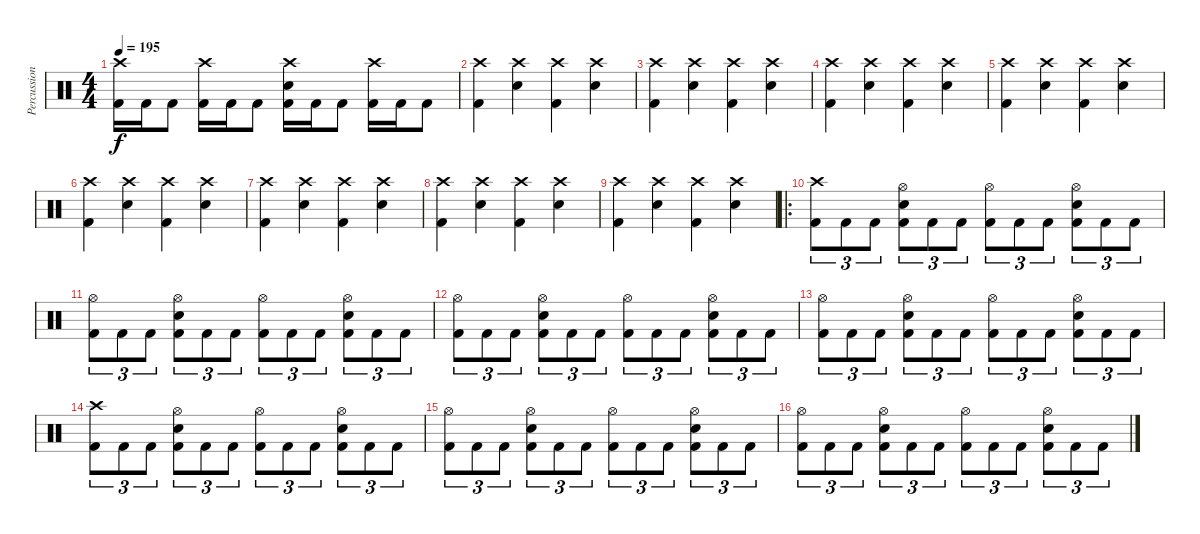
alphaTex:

\track ("Percussion" "Percussion") {instrument percussion}
\staff {score}
\articulation defaults
\ts (4 4)
\tempo 195
\clef neutral
\ks c
("Crash high (hit)" "Kick (hit) 2").16{dy f} "Kick (hit) 2".16 "Kick (hit) 2".8 ("Crash high (hit)" "Kick (hit) 2").16 "Kick (hit) 2".16 "Kick (hit) 2".8 ("Crash high (hit)" "Electric Snare (hit)" "Kick (hit) 2").16 "Kick (hit) 2".16 "Kick (hit) 2".8 ("Crash high (hit)" "Kick (hit) 2").16 "Kick (hit) 2".16 "Kick (hit) 2".8 |
("Crash high (hit)" "Kick (hit) 2").4 ("Crash high (hit)" "Electric Snare (hit)").4 ("Crash high (hit)" "Kick (hit) 2").4 ("Crash high (hit)" "Electric Snare (hit)").4 |
("Crash high (hit)" "Kick (hit) 2").4 ("Crash high (hit)" "Electric Snare (hit)").4 ("Crash high (hit)" "Kick (hit) 2").4 ("Crash high (hit)" "Electric Snare (hit)").4 |
("Crash high (hit)" "Kick (hit) 2").4 ("Crash high (hit)" "Electric Snare (hit)").4 ("Crash high (hit)" "Kick (hit) 2").4 ("Crash high (hit)" "Electric Snare (hit)").4 |
("Crash high (hit)" "Kick (hit) 2").4 ("Crash high (hit)" "Electric Snare (hit)").4 ("Crash high (hit)" "Kick (hit) 2").4 ("Crash high (hit)" "Electric Snare (hit)").4 |
("Crash high (hit)" "Kick (hit) 2").4 ("Crash high (hit)" "Electric Snare (hit)").4 ("Crash high (hit)" "Kick (hit) 2").4 ("Crash high (hit)" "Electric Snare (hit)").4 |
("Crash high (hit)" "Kick (hit) 2").4 ("Crash high (hit)" "Electric Snare (hit)").4 ("Crash high (hit)" "Kick (hit) 2").4 ("Crash high (hit)" "Electric Snare (hit)").4 |
("Crash high (hit)" "Kick (hit) 2").4 ("Crash high (hit)" "Electric Snare (hit)").4 ("Crash high (hit)" "Kick (hit) 2").4 ("Crash high (hit)" "Electric Snare (hit)").4 |
("Crash high (hit)" "Kick (hit) 2").4 ("Crash high (hit)" "Electric Snare (hit)").4 ("Crash high (hit)" "Kick (hit) 2").4 ("Crash high (hit)" "Electric Snare (hit)").4 |
\ro
("Crash high (hit)" "Kick (hit) 2").8{tu (3 2)} "Kick (hit) 2".8{tu (3 2)} "Kick (hit) 2".8{tu (3 2)} ("Hi-Hat (open)" "Electric Snare (hit)" "Kick (hit) 2").8{tu (3 2)} "Kick (hit) 2".8{tu (3 2)} "Kick (hit) 2".8{tu (3 2)} ("Hi-Hat (open)" "Kick (hit) 2").8{tu (3 2)} "Kick (hit) 2".8{tu (3 2)} "Kick (hit) 2".8{tu (3 2)} ("Hi-Hat (open)" "Electric Snare (hit)" "Kick (hit) 2").8{tu (3 2)} "Kick (hit) 2".8{tu (3 2)} "Kick (hit) 2".8{tu (3 2)} |
("Hi-Hat (open)" "Kick (hit) 2").8{tu (3 2)} "Kick (hit) 2".8{tu (3 2)} "Kick (hit) 2".8{tu (3 2)} ("Hi-Hat (open)" "Electric Snare (hit)" "Kick (hit) 2").8{tu (3 2)} "Kick (hit) 2".8{tu (3 2)} "Kick (hit) 2".8{tu (3 2)} ("Hi-Hat (open)" "Kick (hit) 2").8{tu (3 2)} "Kick (hit) 2".8{tu (3 2)} "Kick (hit) 2".8{tu (3 2)} ("Hi-Hat (open)" "Electric Snare (hit)" "Kick (hit) 2").8{tu (3 2)} "Kick (hit) 2".8{tu (3 2)} "Kick (hit) 2".8{tu (3 2)} |
("Hi-Hat (open)" "Kick (hit) 2").8{tu (3 2)} "Kick (hit) 2".8{tu (3 2)} "Kick (hit) 2".8{tu (3 2)} ("Hi-Hat (open)" "Electric Snare (hit)" "Kick (hit) 2").8{tu (3 2)} "Kick (hit) 2".8{tu (3 2)} "Kick (hit) 2".8{tu (3 2)} ("Hi-Hat (open)" "Kick (hit) 2").8{tu (3 2)} "Kick (hit) 2".8{tu (3 2)} "Kick (hit) 2".8{tu (3 2)} ("Hi-Hat (open)" "Electric Snare (hit)" "Kick (hit) 2").8{tu (3 2)} "Kick (hit) 2".8{tu (3 2)} "Kick (hit) 2".8{tu (3 2)} |
("Hi-Hat (open)" "Kick (hit) 2").8{tu (3 2)} "Kick (hit) 2".8{tu (3 2)} "Kick (hit) 2".8{tu (3 2)} ("Hi-Hat (open)" "Electric Snare (hit)" "Kick (hit) 2").8{tu (3 2)} "Kick (hit) 2".8{tu (3 2)} "Kick (hit) 2".8{tu (3 2)} ("Hi-Hat (open)" "Kick (hit) 2").8{tu (3 2)} "Kick (hit) 2".8{tu (3 2)} "Kick (hit) 2".8{tu (3 2)} ("Hi-Hat (open)" "Electric Snare (hit)" "Kick (hit) 2").8{tu (3 2)} "Kick (hit) 2".8{tu (3 2)} "Kick (hit) 2".8{tu (3 2)} |
("Crash high (hit)" "Kick (hit) 2").8{tu (3 2)} "Kick (hit) 2".8{tu (3 2)} "Kick (hit) 2".8{tu (3 2)} ("Hi-Hat (open)" "Electric Snare (hit)" "Kick (hit) 2").8{tu (3 2)} "Kick (hit) 2".8{tu (3 2)} "Kick (hit) 2".8{tu (3 2)} ("Hi-Hat (open)" "Kick (hit) 2").8{tu (3 2)} "Kick (hit) 2".8{tu (3 2)} "Kick (hit) 2".8{tu (3 2)} ("Hi-Hat (open)" "Electric Snare (hit)" "Kick (hit) 2").8{tu (3 2)} "Kick (hit) 2".8{tu (3 2)} "Kick (hit) 2".8{tu (3 2)} |
("Hi-Hat (open)" "Kick (hit) 2").8{tu (3 2)} "Kick (hit) 2".8{tu (3 2)} "Kick (hit) 2".8{tu (3 2)} ("Hi-Hat (open)" "Electric Snare (hit)" "Kick (hit) 2").8{tu (3 2)} "Kick (hit) 2".8{tu (3 2)} "Kick (hit) 2".8{tu (3 2)} ("Hi-Hat (open)" "Kick (hit) 2").8{tu (3 2)} "Kick (hit) 2".8{tu (3 2)} "Kick (hit) 2".8{tu (3 2)} ("Hi-Hat (open)" "Electric Snare (hit)" "Kick (hit) 2").8{tu (3 2)} "Kick (hit) 2".8{tu (3 2)} "Kick (hit) 2".8{tu (3 2)} |
("Hi-Hat (open)" "Kick (hit) 2").8{tu (3 2)} "Kick (hit) 2".8{tu (3 2)} "Kick (hit) 2".8{tu (3 2)} ("Hi-Hat (open)" "Electric Snare (hit)" "Kick (hit) 2").8{tu (3 2)} "Kick (hit) 2".8{tu (3 2)} "Kick (hit) 2".8{tu (3 2)} ("Hi-Hat (open)" "Kick (hit) 2").8{tu (3 2)} "Kick (hit) 2".8{tu (3 2)} "Kick (hit) 2".8{tu (3 2)} ("Hi-Hat (open)" "Electric Snare (hit)" "Kick (hit) 2").8{tu (3 2)} "Kick (hit) 2".8{tu (3 2)} "Kick (hit) 2".8{tu (3 2)}
